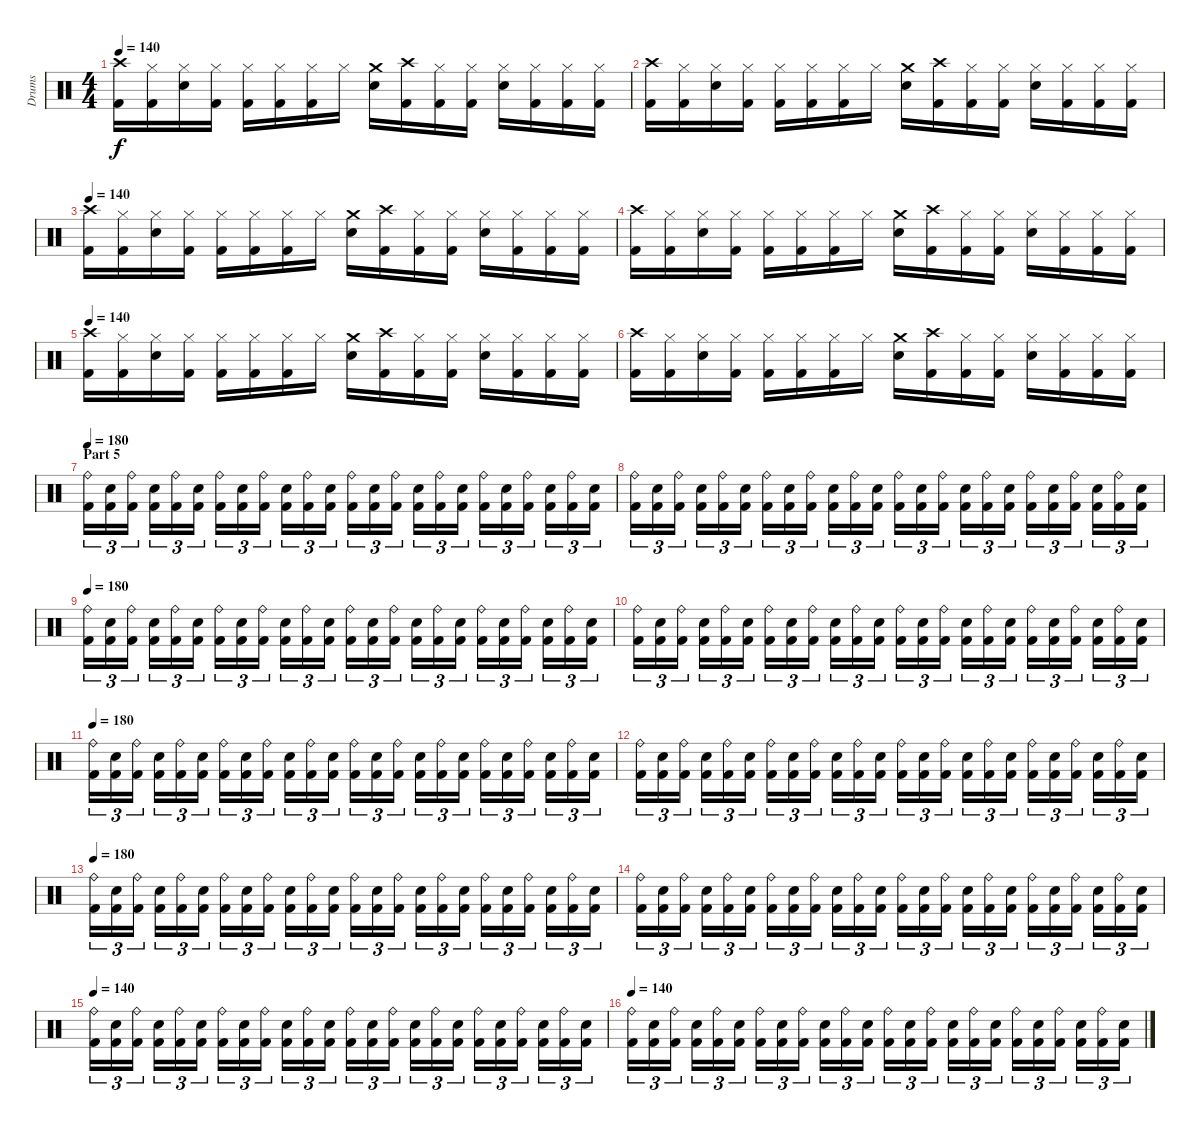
\track ("Drums" "Drums") {instrument percussion}
\staff {score}
\articulation defaults
\ts (4 4)
\tempo 140
\clef neutral
\ks c
("Crash high (hit)" "Kick (hit) 2").16{dy f} ("Hi-Hat (closed)" "Kick (hit) 2").16 ("Hi-Hat (closed)" "Electric Snare (hit)").16 ("Hi-Hat (closed)" "Kick (hit) 2").16 ("Hi-Hat (closed)" "Kick (hit) 2").16 ("Hi-Hat (closed)" "Kick (hit) 2").16 ("Hi-Hat (closed)" "Kick (hit) 2").16 "Hi-Hat (closed)".16 ("Crash medium (hit)" "Electric Snare (hit)").16 ("Crash high (hit)" "Kick (hit) 2").16 ("Hi-Hat (closed)" "Kick (hit) 2").16 ("Hi-Hat (closed)" "Kick (hit) 2").16 ("Hi-Hat (closed)" "Electric Snare (hit)").16 ("Hi-Hat (closed)" "Kick (hit) 2").16 ("Hi-Hat (closed)" "Kick (hit) 2").16 ("Hi-Hat (closed)" "Kick (hit) 2").16 |
("Crash high (hit)" "Kick (hit) 2").16 ("Hi-Hat (closed)" "Kick (hit) 2").16 ("Hi-Hat (closed)" "Electric Snare (hit)").16 ("Hi-Hat (closed)" "Kick (hit) 2").16 ("Hi-Hat (closed)" "Kick (hit) 2").16 ("Hi-Hat (closed)" "Kick (hit) 2").16 ("Hi-Hat (closed)" "Kick (hit) 2").16 "Hi-Hat (closed)".16 ("Crash medium (hit)" "Electric Snare (hit)").16 ("Crash high (hit)" "Kick (hit) 2").16 ("Hi-Hat (closed)" "Kick (hit) 2").16 ("Hi-Hat (closed)" "Kick (hit) 2").16 ("Hi-Hat (closed)" "Electric Snare (hit)").16 ("Hi-Hat (closed)" "Kick (hit) 2").16 ("Hi-Hat (closed)" "Kick (hit) 2").16 ("Hi-Hat (closed)" "Kick (hit) 2").16 |
\tempo 140
("Crash high (hit)" "Kick (hit) 2").16 ("Hi-Hat (closed)" "Kick (hit) 2").16 ("Hi-Hat (closed)" "Electric Snare (hit)").16 ("Hi-Hat (closed)" "Kick (hit) 2").16 ("Hi-Hat (closed)" "Kick (hit) 2").16 ("Hi-Hat (closed)" "Kick (hit) 2").16 ("Hi-Hat (closed)" "Kick (hit) 2").16 "Hi-Hat (closed)".16 ("Crash medium (hit)" "Electric Snare (hit)").16 ("Crash high (hit)" "Kick (hit) 2").16 ("Hi-Hat (closed)" "Kick (hit) 2").16 ("Hi-Hat (closed)" "Kick (hit) 2").16 ("Hi-Hat (closed)" "Electric Snare (hit)").16 ("Hi-Hat (closed)" "Kick (hit) 2").16 ("Hi-Hat (closed)" "Kick (hit) 2").16 ("Hi-Hat (closed)" "Kick (hit) 2").16 |
("Crash high (hit)" "Kick (hit) 2").16 ("Hi-Hat (closed)" "Kick (hit) 2").16 ("Hi-Hat (closed)" "Electric Snare (hit)").16 ("Hi-Hat (closed)" "Kick (hit) 2").16 ("Hi-Hat (closed)" "Kick (hit) 2").16 ("Hi-Hat (closed)" "Kick (hit) 2").16 ("Hi-Hat (closed)" "Kick (hit) 2").16 "Hi-Hat (closed)".16 ("Crash medium (hit)" "Electric Snare (hit)").16 ("Crash high (hit)" "Kick (hit) 2").16 ("Hi-Hat (closed)" "Kick (hit) 2").16 ("Hi-Hat (closed)" "Kick (hit) 2").16 ("Hi-Hat (closed)" "Electric Snare (hit)").16 ("Hi-Hat (closed)" "Kick (hit) 2").16 ("Hi-Hat (closed)" "Kick (hit) 2").16 ("Hi-Hat (closed)" "Kick (hit) 2").16 |
\tempo 140
("Crash high (hit)" "Kick (hit) 2").16 ("Hi-Hat (closed)" "Kick (hit) 2").16 ("Hi-Hat (closed)" "Electric Snare (hit)").16 ("Hi-Hat (closed)" "Kick (hit) 2").16 ("Hi-Hat (closed)" "Kick (hit) 2").16 ("Hi-Hat (closed)" "Kick (hit) 2").16 ("Hi-Hat (closed)" "Kick (hit) 2").16 "Hi-Hat (closed)".16 ("Crash medium (hit)" "Electric Snare (hit)").16 ("Crash high (hit)" "Kick (hit) 2").16 ("Hi-Hat (closed)" "Kick (hit) 2").16 ("Hi-Hat (closed)" "Kick (hit) 2").16 ("Hi-Hat (closed)" "Electric Snare (hit)").16 ("Hi-Hat (closed)" "Kick (hit) 2").16 ("Hi-Hat (closed)" "Kick (hit) 2").16 ("Hi-Hat (closed)" "Kick (hit) 2").16 |
("Crash high (hit)" "Kick (hit) 2").16 ("Hi-Hat (closed)" "Kick (hit) 2").16 ("Hi-Hat (closed)" "Electric Snare (hit)").16 ("Hi-Hat (closed)" "Kick (hit) 2").16 ("Hi-Hat (closed)" "Kick (hit) 2").16 ("Hi-Hat (closed)" "Kick (hit) 2").16 ("Hi-Hat (closed)" "Kick (hit) 2").16 "Hi-Hat (closed)".16 ("Crash medium (hit)" "Electric Snare (hit)").16 ("Crash high (hit)" "Kick (hit) 2").16 ("Hi-Hat (closed)" "Kick (hit) 2").16 ("Hi-Hat (closed)" "Kick (hit) 2").16 ("Hi-Hat (closed)" "Electric Snare (hit)").16 ("Hi-Hat (closed)" "Kick (hit) 2").16 ("Hi-Hat (closed)" "Kick (hit) 2").16 ("Hi-Hat (closed)" "Kick (hit) 2").16 |
\section ("" "Part 5")
\tempo 180
("Ride (bell)" "Kick (hit) 2").16{tu (3 2)} ("Electric Snare (hit)" "Kick (hit) 2").16{tu (3 2)} ("Ride (bell)" "Kick (hit) 2").16{tu (3 2)} ("Electric Snare (hit)" "Kick (hit) 2").16{tu (3 2)} ("Ride (bell)" "Kick (hit) 2").16{tu (3 2)} ("Electric Snare (hit)" "Kick (hit) 2").16{tu (3 2)} ("Ride (bell)" "Kick (hit) 2").16{tu (3 2)} ("Electric Snare (hit)" "Kick (hit) 2").16{tu (3 2)} ("Ride (bell)" "Kick (hit) 2").16{tu (3 2)} ("Electric Snare (hit)" "Kick (hit) 2").16{tu (3 2)} ("Ride (bell)" "Kick (hit) 2").16{tu (3 2)} ("Electric Snare (hit)" "Kick (hit) 2").16{tu (3 2)} ("Ride (bell)" "Kick (hit) 2").16{tu (3 2)} ("Electric Snare (hit)" "Kick (hit) 2").16{tu (3 2)} ("Ride (bell)" "Kick (hit) 2").16{tu (3 2)} ("Electric Snare (hit)" "Kick (hit) 2").16{tu (3 2)} ("Ride (bell)" "Kick (hit) 2").16{tu (3 2)} ("Electric Snare (hit)" "Kick (hit) 2").16{tu (3 2)} ("Ride (bell)" "Kick (hit) 2").16{tu (3 2)} ("Electric Snare (hit)" "Kick (hit) 2").16{tu (3 2)} ("Ride (bell)" "Kick (hit) 2").16{tu (3 2)} ("Electric Snare (hit)" "Kick (hit) 2").16{tu (3 2)} ("Ride (bell)" "Kick (hit) 2").16{tu (3 2)} ("Electric Snare (hit)" "Kick (hit) 2").16{tu (3 2)} |
("Ride (bell)" "Kick (hit) 2").16{tu (3 2)} ("Electric Snare (hit)" "Kick (hit) 2").16{tu (3 2)} ("Ride (bell)" "Kick (hit) 2").16{tu (3 2)} ("Electric Snare (hit)" "Kick (hit) 2").16{tu (3 2)} ("Ride (bell)" "Kick (hit) 2").16{tu (3 2)} ("Electric Snare (hit)" "Kick (hit) 2").16{tu (3 2)} ("Ride (bell)" "Kick (hit) 2").16{tu (3 2)} ("Electric Snare (hit)" "Kick (hit) 2").16{tu (3 2)} ("Ride (bell)" "Kick (hit) 2").16{tu (3 2)} ("Electric Snare (hit)" "Kick (hit) 2").16{tu (3 2)} ("Ride (bell)" "Kick (hit) 2").16{tu (3 2)} ("Electric Snare (hit)" "Kick (hit) 2").16{tu (3 2)} ("Ride (bell)" "Kick (hit) 2").16{tu (3 2)} ("Electric Snare (hit)" "Kick (hit) 2").16{tu (3 2)} ("Ride (bell)" "Kick (hit) 2").16{tu (3 2)} ("Electric Snare (hit)" "Kick (hit) 2").16{tu (3 2)} ("Ride (bell)" "Kick (hit) 2").16{tu (3 2)} ("Electric Snare (hit)" "Kick (hit) 2").16{tu (3 2)} ("Ride (bell)" "Kick (hit) 2").16{tu (3 2)} ("Electric Snare (hit)" "Kick (hit) 2").16{tu (3 2)} ("Ride (bell)" "Kick (hit) 2").16{tu (3 2)} ("Electric Snare (hit)" "Kick (hit) 2").16{tu (3 2)} ("Ride (bell)" "Kick (hit) 2").16{tu (3 2)} ("Electric Snare (hit)" "Kick (hit) 2").16{tu (3 2)} |
\tempo 180
("Ride (bell)" "Kick (hit) 2").16{tu (3 2)} ("Electric Snare (hit)" "Kick (hit) 2").16{tu (3 2)} ("Ride (bell)" "Kick (hit) 2").16{tu (3 2)} ("Electric Snare (hit)" "Kick (hit) 2").16{tu (3 2)} ("Ride (bell)" "Kick (hit) 2").16{tu (3 2)} ("Electric Snare (hit)" "Kick (hit) 2").16{tu (3 2)} ("Ride (bell)" "Kick (hit) 2").16{tu (3 2)} ("Electric Snare (hit)" "Kick (hit) 2").16{tu (3 2)} ("Ride (bell)" "Kick (hit) 2").16{tu (3 2)} ("Electric Snare (hit)" "Kick (hit) 2").16{tu (3 2)} ("Ride (bell)" "Kick (hit) 2").16{tu (3 2)} ("Electric Snare (hit)" "Kick (hit) 2").16{tu (3 2)} ("Ride (bell)" "Kick (hit) 2").16{tu (3 2)} ("Electric Snare (hit)" "Kick (hit) 2").16{tu (3 2)} ("Ride (bell)" "Kick (hit) 2").16{tu (3 2)} ("Electric Snare (hit)" "Kick (hit) 2").16{tu (3 2)} ("Ride (bell)" "Kick (hit) 2").16{tu (3 2)} ("Electric Snare (hit)" "Kick (hit) 2").16{tu (3 2)} ("Ride (bell)" "Kick (hit) 2").16{tu (3 2)} ("Electric Snare (hit)" "Kick (hit) 2").16{tu (3 2)} ("Ride (bell)" "Kick (hit) 2").16{tu (3 2)} ("Electric Snare (hit)" "Kick (hit) 2").16{tu (3 2)} ("Ride (bell)" "Kick (hit) 2").16{tu (3 2)} ("Electric Snare (hit)" "Kick (hit) 2").16{tu (3 2)} |
("Ride (bell)" "Kick (hit) 2").16{tu (3 2)} ("Electric Snare (hit)" "Kick (hit) 2").16{tu (3 2)} ("Ride (bell)" "Kick (hit) 2").16{tu (3 2)} ("Electric Snare (hit)" "Kick (hit) 2").16{tu (3 2)} ("Ride (bell)" "Kick (hit) 2").16{tu (3 2)} ("Electric Snare (hit)" "Kick (hit) 2").16{tu (3 2)} ("Ride (bell)" "Kick (hit) 2").16{tu (3 2)} ("Electric Snare (hit)" "Kick (hit) 2").16{tu (3 2)} ("Ride (bell)" "Kick (hit) 2").16{tu (3 2)} ("Electric Snare (hit)" "Kick (hit) 2").16{tu (3 2)} ("Ride (bell)" "Kick (hit) 2").16{tu (3 2)} ("Electric Snare (hit)" "Kick (hit) 2").16{tu (3 2)} ("Ride (bell)" "Kick (hit) 2").16{tu (3 2)} ("Electric Snare (hit)" "Kick (hit) 2").16{tu (3 2)} ("Ride (bell)" "Kick (hit) 2").16{tu (3 2)} ("Electric Snare (hit)" "Kick (hit) 2").16{tu (3 2)} ("Ride (bell)" "Kick (hit) 2").16{tu (3 2)} ("Electric Snare (hit)" "Kick (hit) 2").16{tu (3 2)} ("Ride (bell)" "Kick (hit) 2").16{tu (3 2)} ("Electric Snare (hit)" "Kick (hit) 2").16{tu (3 2)} ("Ride (bell)" "Kick (hit) 2").16{tu (3 2)} ("Electric Snare (hit)" "Kick (hit) 2").16{tu (3 2)} ("Ride (bell)" "Kick (hit) 2").16{tu (3 2)} ("Electric Snare (hit)" "Kick (hit) 2").16{tu (3 2)} |
\tempo 180
("Ride (bell)" "Kick (hit) 2").16{tu (3 2)} ("Electric Snare (hit)" "Kick (hit) 2").16{tu (3 2)} ("Ride (bell)" "Kick (hit) 2").16{tu (3 2)} ("Electric Snare (hit)" "Kick (hit) 2").16{tu (3 2)} ("Ride (bell)" "Kick (hit) 2").16{tu (3 2)} ("Electric Snare (hit)" "Kick (hit) 2").16{tu (3 2)} ("Ride (bell)" "Kick (hit) 2").16{tu (3 2)} ("Electric Snare (hit)" "Kick (hit) 2").16{tu (3 2)} ("Ride (bell)" "Kick (hit) 2").16{tu (3 2)} ("Electric Snare (hit)" "Kick (hit) 2").16{tu (3 2)} ("Ride (bell)" "Kick (hit) 2").16{tu (3 2)} ("Electric Snare (hit)" "Kick (hit) 2").16{tu (3 2)} ("Ride (bell)" "Kick (hit) 2").16{tu (3 2)} ("Electric Snare (hit)" "Kick (hit) 2").16{tu (3 2)} ("Ride (bell)" "Kick (hit) 2").16{tu (3 2)} ("Electric Snare (hit)" "Kick (hit) 2").16{tu (3 2)} ("Ride (bell)" "Kick (hit) 2").16{tu (3 2)} ("Electric Snare (hit)" "Kick (hit) 2").16{tu (3 2)} ("Ride (bell)" "Kick (hit) 2").16{tu (3 2)} ("Electric Snare (hit)" "Kick (hit) 2").16{tu (3 2)} ("Ride (bell)" "Kick (hit) 2").16{tu (3 2)} ("Electric Snare (hit)" "Kick (hit) 2").16{tu (3 2)} ("Ride (bell)" "Kick (hit) 2").16{tu (3 2)} ("Electric Snare (hit)" "Kick (hit) 2").16{tu (3 2)} |
("Ride (bell)" "Kick (hit) 2").16{tu (3 2)} ("Electric Snare (hit)" "Kick (hit) 2").16{tu (3 2)} ("Ride (bell)" "Kick (hit) 2").16{tu (3 2)} ("Electric Snare (hit)" "Kick (hit) 2").16{tu (3 2)} ("Ride (bell)" "Kick (hit) 2").16{tu (3 2)} ("Electric Snare (hit)" "Kick (hit) 2").16{tu (3 2)} ("Ride (bell)" "Kick (hit) 2").16{tu (3 2)} ("Electric Snare (hit)" "Kick (hit) 2").16{tu (3 2)} ("Ride (bell)" "Kick (hit) 2").16{tu (3 2)} ("Electric Snare (hit)" "Kick (hit) 2").16{tu (3 2)} ("Ride (bell)" "Kick (hit) 2").16{tu (3 2)} ("Electric Snare (hit)" "Kick (hit) 2").16{tu (3 2)} ("Ride (bell)" "Kick (hit) 2").16{tu (3 2)} ("Electric Snare (hit)" "Kick (hit) 2").16{tu (3 2)} ("Ride (bell)" "Kick (hit) 2").16{tu (3 2)} ("Electric Snare (hit)" "Kick (hit) 2").16{tu (3 2)} ("Ride (bell)" "Kick (hit) 2").16{tu (3 2)} ("Electric Snare (hit)" "Kick (hit) 2").16{tu (3 2)} ("Ride (bell)" "Kick (hit) 2").16{tu (3 2)} ("Electric Snare (hit)" "Kick (hit) 2").16{tu (3 2)} ("Ride (bell)" "Kick (hit) 2").16{tu (3 2)} ("Electric Snare (hit)" "Kick (hit) 2").16{tu (3 2)} ("Ride (bell)" "Kick (hit) 2").16{tu (3 2)} ("Electric Snare (hit)" "Kick (hit) 2").16{tu (3 2)} |
\tempo 180
("Ride (bell)" "Kick (hit) 2").16{tu (3 2)} ("Electric Snare (hit)" "Kick (hit) 2").16{tu (3 2)} ("Ride (bell)" "Kick (hit) 2").16{tu (3 2)} ("Electric Snare (hit)" "Kick (hit) 2").16{tu (3 2)} ("Ride (bell)" "Kick (hit) 2").16{tu (3 2)} ("Electric Snare (hit)" "Kick (hit) 2").16{tu (3 2)} ("Ride (bell)" "Kick (hit) 2").16{tu (3 2)} ("Electric Snare (hit)" "Kick (hit) 2").16{tu (3 2)} ("Ride (bell)" "Kick (hit) 2").16{tu (3 2)} ("Electric Snare (hit)" "Kick (hit) 2").16{tu (3 2)} ("Ride (bell)" "Kick (hit) 2").16{tu (3 2)} ("Electric Snare (hit)" "Kick (hit) 2").16{tu (3 2)} ("Ride (bell)" "Kick (hit) 2").16{tu (3 2)} ("Electric Snare (hit)" "Kick (hit) 2").16{tu (3 2)} ("Ride (bell)" "Kick (hit) 2").16{tu (3 2)} ("Electric Snare (hit)" "Kick (hit) 2").16{tu (3 2)} ("Ride (bell)" "Kick (hit) 2").16{tu (3 2)} ("Electric Snare (hit)" "Kick (hit) 2").16{tu (3 2)} ("Ride (bell)" "Kick (hit) 2").16{tu (3 2)} ("Electric Snare (hit)" "Kick (hit) 2").16{tu (3 2)} ("Ride (bell)" "Kick (hit) 2").16{tu (3 2)} ("Electric Snare (hit)" "Kick (hit) 2").16{tu (3 2)} ("Ride (bell)" "Kick (hit) 2").16{tu (3 2)} ("Electric Snare (hit)" "Kick (hit) 2").16{tu (3 2)} |
("Ride (bell)" "Kick (hit) 2").16{tu (3 2)} ("Electric Snare (hit)" "Kick (hit) 2").16{tu (3 2)} ("Ride (bell)" "Kick (hit) 2").16{tu (3 2)} ("Electric Snare (hit)" "Kick (hit) 2").16{tu (3 2)} ("Ride (bell)" "Kick (hit) 2").16{tu (3 2)} ("Electric Snare (hit)" "Kick (hit) 2").16{tu (3 2)} ("Ride (bell)" "Kick (hit) 2").16{tu (3 2)} ("Electric Snare (hit)" "Kick (hit) 2").16{tu (3 2)} ("Ride (bell)" "Kick (hit) 2").16{tu (3 2)} ("Electric Snare (hit)" "Kick (hit) 2").16{tu (3 2)} ("Ride (bell)" "Kick (hit) 2").16{tu (3 2)} ("Electric Snare (hit)" "Kick (hit) 2").16{tu (3 2)} ("Ride (bell)" "Kick (hit) 2").16{tu (3 2)} ("Electric Snare (hit)" "Kick (hit) 2").16{tu (3 2)} ("Ride (bell)" "Kick (hit) 2").16{tu (3 2)} ("Electric Snare (hit)" "Kick (hit) 2").16{tu (3 2)} ("Ride (bell)" "Kick (hit) 2").16{tu (3 2)} ("Electric Snare (hit)" "Kick (hit) 2").16{tu (3 2)} ("Ride (bell)" "Kick (hit) 2").16{tu (3 2)} ("Electric Snare (hit)" "Kick (hit) 2").16{tu (3 2)} ("Ride (bell)" "Kick (hit) 2").16{tu (3 2)} ("Electric Snare (hit)" "Kick (hit) 2").16{tu (3 2)} ("Ride (bell)" "Kick (hit) 2").16{tu (3 2)} ("Electric Snare (hit)" "Kick (hit) 2").16{tu (3 2)} |
\tempo 140
("Ride (bell)" "Kick (hit) 2").16{tu (3 2)} ("Electric Snare (hit)" "Kick (hit) 2").16{tu (3 2)} ("Ride (bell)" "Kick (hit) 2").16{tu (3 2)} ("Electric Snare (hit)" "Kick (hit) 2").16{tu (3 2)} ("Ride (bell)" "Kick (hit) 2").16{tu (3 2)} ("Electric Snare (hit)" "Kick (hit) 2").16{tu (3 2)} ("Ride (bell)" "Kick (hit) 2").16{tu (3 2)} ("Electric Snare (hit)" "Kick (hit) 2").16{tu (3 2)} ("Ride (bell)" "Kick (hit) 2").16{tu (3 2)} ("Electric Snare (hit)" "Kick (hit) 2").16{tu (3 2)} ("Ride (bell)" "Kick (hit) 2").16{tu (3 2)} ("Electric Snare (hit)" "Kick (hit) 2").16{tu (3 2)} ("Ride (bell)" "Kick (hit) 2").16{tu (3 2)} ("Electric Snare (hit)" "Kick (hit) 2").16{tu (3 2)} ("Ride (bell)" "Kick (hit) 2").16{tu (3 2)} ("Electric Snare (hit)" "Kick (hit) 2").16{tu (3 2)} ("Ride (bell)" "Kick (hit) 2").16{tu (3 2)} ("Electric Snare (hit)" "Kick (hit) 2").16{tu (3 2)} ("Ride (bell)" "Kick (hit) 2").16{tu (3 2)} ("Electric Snare (hit)" "Kick (hit) 2").16{tu (3 2)} ("Ride (bell)" "Kick (hit) 2").16{tu (3 2)} ("Electric Snare (hit)" "Kick (hit) 2").16{tu (3 2)} ("Ride (bell)" "Kick (hit) 2").16{tu (3 2)} ("Electric Snare (hit)" "Kick (hit) 2").16{tu (3 2)} |
\tempo 140
("Ride (bell)" "Kick (hit) 2").16{tu (3 2)} ("Electric Snare (hit)" "Kick (hit) 2").16{tu (3 2)} ("Ride (bell)" "Kick (hit) 2").16{tu (3 2)} ("Electric Snare (hit)" "Kick (hit) 2").16{tu (3 2)} ("Ride (bell)" "Kick (hit) 2").16{tu (3 2)} ("Electric Snare (hit)" "Kick (hit) 2").16{tu (3 2)} ("Ride (bell)" "Kick (hit) 2").16{tu (3 2)} ("Electric Snare (hit)" "Kick (hit) 2").16{tu (3 2)} ("Ride (bell)" "Kick (hit) 2").16{tu (3 2)} ("Electric Snare (hit)" "Kick (hit) 2").16{tu (3 2)} ("Ride (bell)" "Kick (hit) 2").16{tu (3 2)} ("Electric Snare (hit)" "Kick (hit) 2").16{tu (3 2)} ("Ride (bell)" "Kick (hit) 2").16{tu (3 2)} ("Electric Snare (hit)" "Kick (hit) 2").16{tu (3 2)} ("Ride (bell)" "Kick (hit) 2").16{tu (3 2)} ("Electric Snare (hit)" "Kick (hit) 2").16{tu (3 2)} ("Ride (bell)" "Kick (hit) 2").16{tu (3 2)} ("Electric Snare (hit)" "Kick (hit) 2").16{tu (3 2)} ("Ride (bell)" "Kick (hit) 2").16{tu (3 2)} ("Electric Snare (hit)" "Kick (hit) 2").16{tu (3 2)} ("Ride (bell)" "Kick (hit) 2").16{tu (3 2)} ("Electric Snare (hit)" "Kick (hit) 2").16{tu (3 2)} ("Ride (bell)" "Kick (hit) 2").16{tu (3 2)} ("Electric Snare (hit)" "Kick (hit) 2").16{tu (3 2)}
